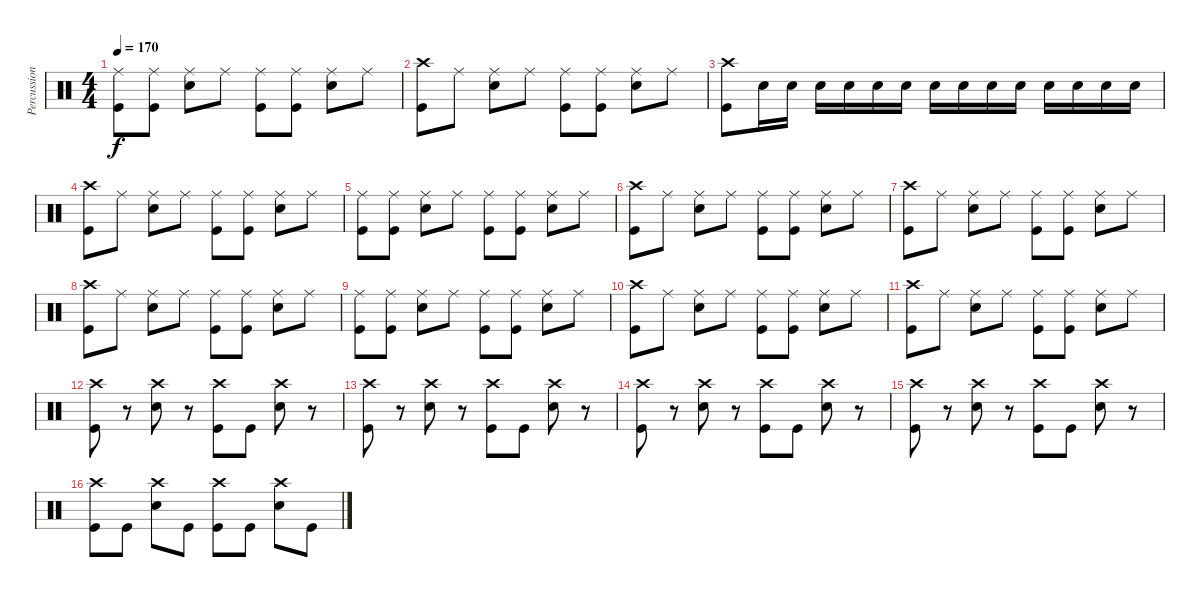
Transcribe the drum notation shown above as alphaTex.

\track ("Percussion" "Percussion") {instrument percussion}
\staff {score}
\articulation defaults
\ts (4 4)
\tempo 170
\clef neutral
\ks c
("Ride (middle)" "Kick (hit)").8{dy f} ("Ride (middle)" "Kick (hit)").8 ("Ride (middle)" "Snare (hit) 2").8 "Ride (middle)".8 ("Ride (middle)" "Kick (hit)").8 ("Ride (middle)" "Kick (hit)").8 ("Ride (middle)" "Snare (hit) 2").8 "Ride (middle)".8 |
("Crash high (hit)" "Kick (hit)").8 "Ride (middle)".8 ("Ride (middle)" "Snare (hit) 2").8 "Ride (middle)".8 ("Ride (middle)" "Kick (hit)").8 ("Ride (middle)" "Kick (hit)").8 ("Ride (middle)" "Snare (hit) 2").8 "Ride (middle)".8 |
("Crash high (hit)" "Kick (hit)").8 "Snare (hit) 2".16 "Snare (hit) 2".16 "Snare (hit) 2".16 "Snare (hit) 2".16 "Snare (hit) 2".16 "Snare (hit) 2".16 "Snare (hit) 2".16 "Snare (hit) 2".16 "Snare (hit) 2".16 "Snare (hit) 2".16 "Snare (hit) 2".16 "Snare (hit) 2".16 "Snare (hit) 2".16 "Snare (hit) 2".16 |
("Crash high (hit)" "Kick (hit)").8 "Ride (middle)".8 ("Ride (middle)" "Snare (hit) 2").8 "Ride (middle)".8 ("Ride (middle)" "Kick (hit)").8 ("Ride (middle)" "Kick (hit)").8 ("Ride (middle)" "Snare (hit) 2").8 "Ride (middle)".8 |
("Ride (middle)" "Kick (hit)").8 ("Ride (middle)" "Kick (hit)").8 ("Ride (middle)" "Snare (hit) 2").8 "Ride (middle)".8 ("Ride (middle)" "Kick (hit)").8 ("Ride (middle)" "Kick (hit)").8 ("Ride (middle)" "Snare (hit) 2").8 "Ride (middle)".8 |
("Crash high (hit)" "Kick (hit)").8 "Ride (middle)".8 ("Ride (middle)" "Snare (hit) 2").8 "Ride (middle)".8 ("Ride (middle)" "Kick (hit)").8 ("Ride (middle)" "Kick (hit)").8 ("Ride (middle)" "Snare (hit) 2").8 "Ride (middle)".8 |
("Crash high (hit)" "Kick (hit)").8 "Ride (middle)".8 ("Ride (middle)" "Snare (hit) 2").8 "Ride (middle)".8 ("Ride (middle)" "Kick (hit)").8 ("Ride (middle)" "Kick (hit)").8 ("Ride (middle)" "Snare (hit) 2").8 "Ride (middle)".8 |
("Crash high (hit)" "Kick (hit)").8 "Ride (middle)".8 ("Ride (middle)" "Snare (hit) 2").8 "Ride (middle)".8 ("Ride (middle)" "Kick (hit)").8 ("Ride (middle)" "Kick (hit)").8 ("Ride (middle)" "Snare (hit) 2").8 "Ride (middle)".8 |
("Ride (middle)" "Kick (hit)").8 ("Ride (middle)" "Kick (hit)").8 ("Ride (middle)" "Snare (hit) 2").8 "Ride (middle)".8 ("Ride (middle)" "Kick (hit)").8 ("Ride (middle)" "Kick (hit)").8 ("Ride (middle)" "Snare (hit) 2").8 "Ride (middle)".8 |
("Crash high (hit)" "Kick (hit)").8 "Ride (middle)".8 ("Ride (middle)" "Snare (hit) 2").8 "Ride (middle)".8 ("Ride (middle)" "Kick (hit)").8 ("Ride (middle)" "Kick (hit)").8 ("Ride (middle)" "Snare (hit) 2").8 "Ride (middle)".8 |
("Crash high (hit)" "Kick (hit)").8 "Ride (middle)".8 ("Ride (middle)" "Snare (hit) 2").8 "Ride (middle)".8 ("Ride (middle)" "Kick (hit)").8 ("Ride (middle)" "Kick (hit)").8 ("Ride (middle)" "Snare (hit) 2").8 "Ride (middle)".8 |
("Crash high (hit)" "Kick (hit)").8 r.8 ("Crash high (hit)" "Snare (hit) 2").8 r.8 ("Crash high (hit)" "Kick (hit)").8 "Kick (hit)".8 ("Crash high (hit)" "Snare (hit) 2").8 r.8 |
("Crash high (hit)" "Kick (hit)").8 r.8 ("Crash high (hit)" "Snare (hit) 2").8 r.8 ("Crash high (hit)" "Kick (hit)").8 "Kick (hit)".8 ("Crash high (hit)" "Snare (hit) 2").8 r.8 |
("Crash high (hit)" "Kick (hit)").8 r.8 ("Crash high (hit)" "Snare (hit) 2").8 r.8 ("Crash high (hit)" "Kick (hit)").8 "Kick (hit)".8 ("Crash high (hit)" "Snare (hit) 2").8 r.8 |
("Crash high (hit)" "Kick (hit)").8 r.8 ("Crash high (hit)" "Snare (hit) 2").8 r.8 ("Crash high (hit)" "Kick (hit)").8 "Kick (hit)".8 ("Crash high (hit)" "Snare (hit) 2").8 r.8 |
("Crash high (hit)" "Kick (hit)").8 "Kick (hit)".8 ("Crash high (hit)" "Snare (hit) 2").8 "Kick (hit)".8 ("Crash high (hit)" "Kick (hit)").8 "Kick (hit)".8 ("Crash high (hit)" "Snare (hit) 2").8 "Kick (hit)".8
